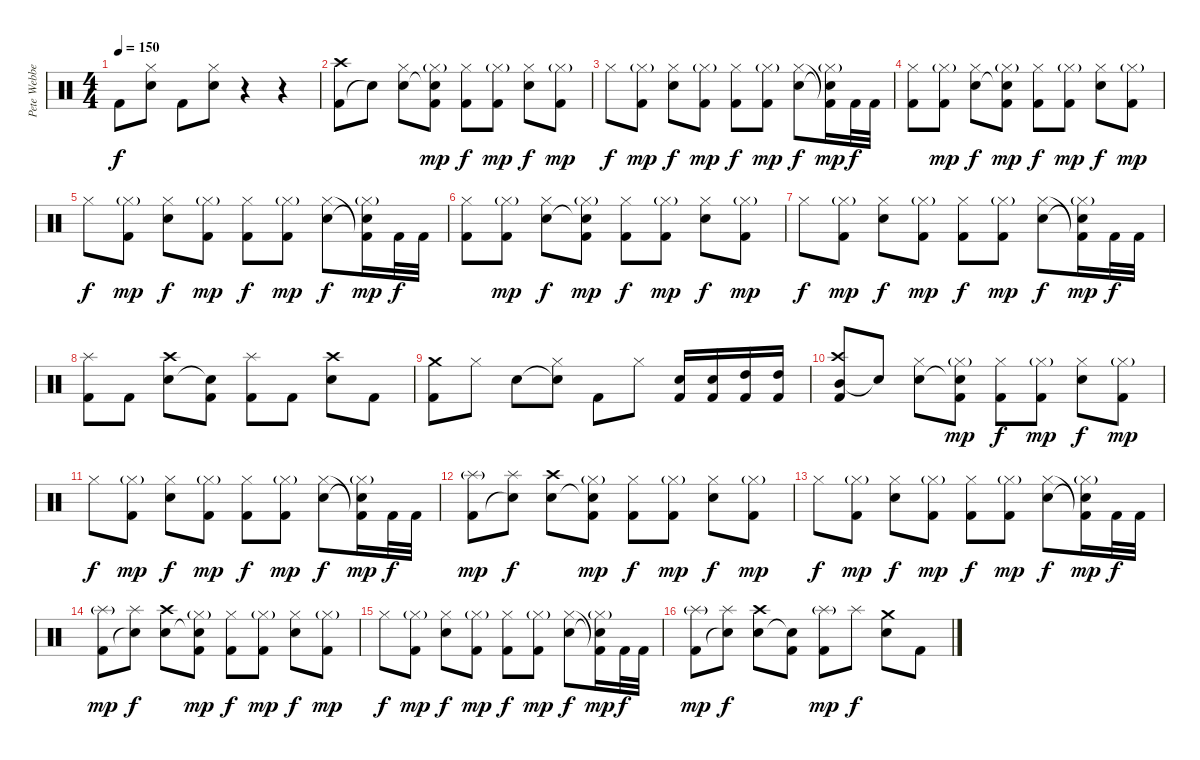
\track ("Pete Webber" "Pete Webbe") {instrument percussion}
\staff {score}
\articulation defaults
\ts (4 4)
\tempo 150
\clef neutral
\ks c "Kick (hit) 2".8{dy f}
("Hi-Hat (closed)" "Electric Snare (hit)").8 "Kick (hit) 2".8 ("Hi-Hat (closed)" "Electric Snare (hit)").8 r.4 r.4 |
("Kick (hit) 2" "Crash high (hit)").8 "Snare (hit)"{t}.8 ("Electric Snare (hit)" "Hi-Hat (closed)").8 ("Snare (hit)"{t} "Kick (hit) 2" "Hi-Hat (closed)"{g}).8{dy mp} ("Kick (hit) 2" "Hi-Hat (closed)").8{dy f} ("Kick (hit) 2" "Hi-Hat (closed)"{g}).8{dy mp} ("Electric Snare (hit)" "Hi-Hat (closed)").8{dy f} ("Kick (hit) 2" "Hi-Hat (closed)"{g}).8{dy mp} |
"Hi-Hat (closed)".8{dy f} ("Kick (hit) 2" "Hi-Hat (closed)"{g}).8{dy mp} ("Electric Snare (hit)" "Hi-Hat (closed)").8{dy f} ("Kick (hit) 2" "Hi-Hat (closed)"{g}).8{dy mp} ("Kick (hit) 2" "Hi-Hat (closed)").8{dy f} ("Kick (hit) 2" "Hi-Hat (closed)"{g}).8{dy mp} ("Electric Snare (hit)" "Hi-Hat (closed)").8{dy f} ("Snare (hit)"{t} "Kick (hit) 2"{t} "Hi-Hat (closed)"{g}).16{dy mp} "Kick (hit) 2".32{dy f} "Kick (hit) 2".32 |
("Kick (hit) 2" "Hi-Hat (closed)").8 ("Kick (hit) 2" "Hi-Hat (closed)"{g}).8{dy mp} ("Electric Snare (hit)" "Hi-Hat (closed)").8{dy f} ("Snare (hit)"{t} "Kick (hit) 2" "Hi-Hat (closed)"{g}).8{dy mp} ("Kick (hit) 2" "Hi-Hat (closed)").8{dy f} ("Kick (hit) 2" "Hi-Hat (closed)"{g}).8{dy mp} ("Electric Snare (hit)" "Hi-Hat (closed)").8{dy f} ("Kick (hit) 2" "Hi-Hat (closed)"{g}).8{dy mp} |
"Hi-Hat (closed)".8{dy f} ("Kick (hit) 2" "Hi-Hat (closed)"{g}).8{dy mp} ("Electric Snare (hit)" "Hi-Hat (closed)").8{dy f} ("Kick (hit) 2" "Hi-Hat (closed)"{g}).8{dy mp} ("Kick (hit) 2" "Hi-Hat (closed)").8{dy f} ("Kick (hit) 2" "Hi-Hat (closed)"{g}).8{dy mp} ("Electric Snare (hit)" "Hi-Hat (closed)").8{dy f} ("Snare (hit)"{t} "Kick (hit) 2"{t} "Hi-Hat (closed)"{g}).16{dy mp} "Kick (hit) 2".32{dy f} "Kick (hit) 2".32 |
("Kick (hit) 2" "Hi-Hat (closed)").8 ("Kick (hit) 2" "Hi-Hat (closed)"{g}).8{dy mp} ("Electric Snare (hit)" "Hi-Hat (closed)").8{dy f} ("Snare (hit)"{t} "Kick (hit) 2" "Hi-Hat (closed)"{g}).8{dy mp} ("Kick (hit) 2" "Hi-Hat (closed)").8{dy f} ("Kick (hit) 2" "Hi-Hat (closed)"{g}).8{dy mp} ("Electric Snare (hit)" "Hi-Hat (closed)").8{dy f} ("Kick (hit) 2" "Hi-Hat (closed)"{g}).8{dy mp} |
"Hi-Hat (closed)".8{dy f} ("Kick (hit) 2" "Hi-Hat (closed)"{g}).8{dy mp} ("Electric Snare (hit)" "Hi-Hat (closed)").8{dy f} ("Kick (hit) 2" "Hi-Hat (closed)"{g}).8{dy mp} ("Kick (hit) 2" "Hi-Hat (closed)").8{dy f} ("Kick (hit) 2" "Hi-Hat (closed)"{g}).8{dy mp} ("Electric Snare (hit)" "Hi-Hat (closed)").8{dy f} ("Snare (hit)"{t} "Kick (hit) 2"{t} "Hi-Hat (closed)"{g}).16{dy mp} "Kick (hit) 2".32{dy f} "Kick (hit) 2".32 |
("Kick (hit) 2" "Splash (hit)").8 "Kick (hit) 2".8 ("Electric Snare (hit)" "Crash high (hit)").8 ("Snare (hit)"{t} "Kick (hit) 2").8 ("Kick (hit) 2" "Splash (hit)").8 "Kick (hit) 2".8 ("Electric Snare (hit)" "Crash high (hit)").8 "Kick (hit) 2".8 |
("Kick (hit) 2" "Crash medium (hit)").8 "Hi-Hat (closed)".8 "Electric Snare (hit)".8 ("Snare (hit)"{t} "Hi-Hat (closed)").8 "Kick (hit) 2".8 "Hi-Hat (closed)".8 ("Electric Snare (hit)" "Kick (hit) 2").16 ("Electric Snare (hit)" "Kick (hit) 2").16 ("High Tom (hit)" "Kick (hit) 2").16 ("High Tom (hit)" "Kick (hit) 2").16 |
("Mid Tom (hit)" "Kick (hit) 2" "Crash high (hit)").8 "Snare (hit)"{t}.8 ("Electric Snare (hit)" "Hi-Hat (closed)").8 ("Snare (hit)"{t} "Kick (hit) 2" "Hi-Hat (closed)"{g}).8{dy mp} ("Kick (hit) 2" "Hi-Hat (closed)").8{dy f} ("Kick (hit) 2" "Hi-Hat (closed)"{g}).8{dy mp} ("Electric Snare (hit)" "Hi-Hat (closed)").8{dy f} ("Kick (hit) 2" "Hi-Hat (closed)"{g}).8{dy mp} |
"Hi-Hat (closed)".8{dy f} ("Kick (hit) 2" "Hi-Hat (closed)"{g}).8{dy mp} ("Electric Snare (hit)" "Hi-Hat (closed)").8{dy f} ("Kick (hit) 2" "Hi-Hat (closed)"{g}).8{dy mp} ("Kick (hit) 2" "Hi-Hat (closed)").8{dy f} ("Kick (hit) 2" "Hi-Hat (closed)"{g}).8{dy mp} ("Electric Snare (hit)" "Hi-Hat (closed)").8{dy f} ("Snare (hit)"{t} "Kick (hit) 2"{t} "Hi-Hat (closed)"{g}).16{dy mp} "Kick (hit) 2".32{dy f} "Kick (hit) 2".32 |
("Kick (hit) 2" "Splash (hit)"{g}).8{dy mp} ("Snare (hit)"{t} "Splash (hit)").8{dy f} ("Electric Snare (hit)" "Crash high (hit)").8 ("Snare (hit)"{t} "Kick (hit) 2" "Hi-Hat (closed)"{g}).8{dy mp} ("Kick (hit) 2" "Hi-Hat (closed)").8{dy f} ("Kick (hit) 2" "Hi-Hat (closed)"{g}).8{dy mp} ("Electric Snare (hit)" "Hi-Hat (closed)").8{dy f} ("Kick (hit) 2" "Hi-Hat (closed)"{g}).8{dy mp} |
"Hi-Hat (closed)".8{dy f} ("Kick (hit) 2" "Hi-Hat (closed)"{g}).8{dy mp} ("Electric Snare (hit)" "Hi-Hat (closed)").8{dy f} ("Kick (hit) 2" "Hi-Hat (closed)"{g}).8{dy mp} ("Kick (hit) 2" "Hi-Hat (closed)").8{dy f} ("Kick (hit) 2" "Hi-Hat (closed)"{g}).8{dy mp} ("Electric Snare (hit)" "Hi-Hat (closed)").8{dy f} ("Snare (hit)"{t} "Kick (hit) 2"{t} "Hi-Hat (closed)"{g}).16{dy mp} "Kick (hit) 2".32{dy f} "Kick (hit) 2".32 |
("Kick (hit) 2" "Splash (hit)"{g}).8{dy mp} ("Snare (hit)"{t} "Splash (hit)").8{dy f} ("Electric Snare (hit)" "Crash high (hit)").8 ("Snare (hit)"{t} "Kick (hit) 2" "Hi-Hat (closed)"{g}).8{dy mp} ("Kick (hit) 2" "Hi-Hat (closed)").8{dy f} ("Kick (hit) 2" "Hi-Hat (closed)"{g}).8{dy mp} ("Electric Snare (hit)" "Hi-Hat (closed)").8{dy f} ("Kick (hit) 2" "Hi-Hat (closed)"{g}).8{dy mp} |
"Hi-Hat (closed)".8{dy f} ("Kick (hit) 2" "Hi-Hat (closed)"{g}).8{dy mp} ("Electric Snare (hit)" "Hi-Hat (closed)").8{dy f} ("Kick (hit) 2" "Hi-Hat (closed)"{g}).8{dy mp} ("Kick (hit) 2" "Hi-Hat (closed)").8{dy f} ("Kick (hit) 2" "Hi-Hat (closed)"{g}).8{dy mp} ("Electric Snare (hit)" "Hi-Hat (closed)").8{dy f} ("Snare (hit)"{t} "Kick (hit) 2"{t} "Hi-Hat (closed)"{g}).16{dy mp} "Kick (hit) 2".32{dy f} "Kick (hit) 2".32 |
("Kick (hit) 2" "Splash (hit)"{g}).8{dy mp} ("Snare (hit)"{t} "Splash (hit)").8{dy f} ("Electric Snare (hit)" "Crash high (hit)").8 ("Snare (hit)"{t} "Kick (hit) 2").8 ("Kick (hit) 2" "Splash (hit)"{g}).8{dy mp} "Splash (hit)".8{dy f} ("Electric Snare (hit)" "Crash medium (hit)").8 "Kick (hit) 2".8
